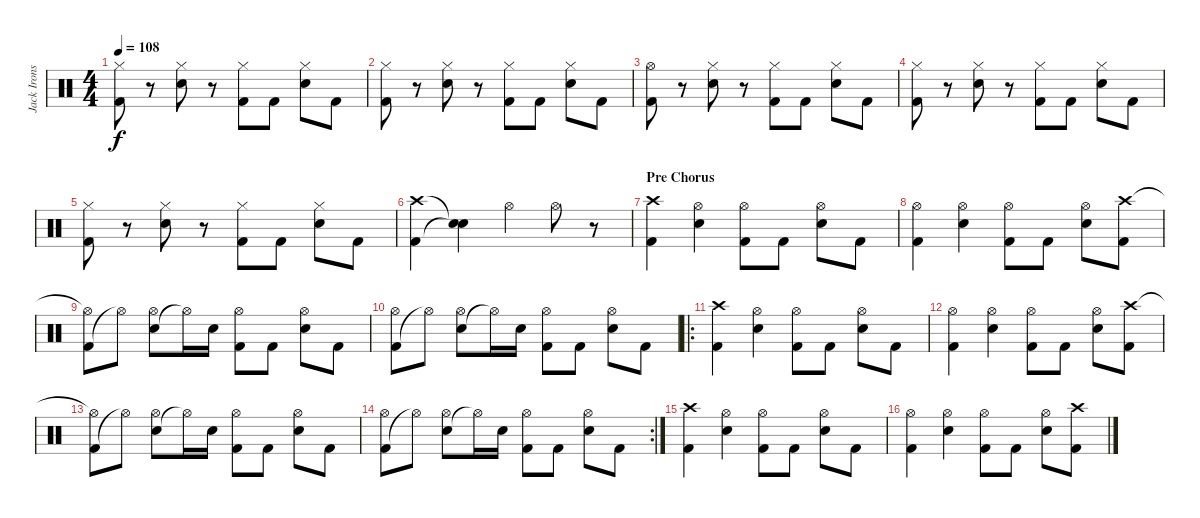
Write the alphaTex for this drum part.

\track ("Jack Irons" "Jack Irons") {instrument percussion}
\staff {score}
\articulation defaults
\ts (4 4)
\tempo 108
\clef neutral
\ks c
("Kick (hit) 2" "Hi-Hat (closed)").8{dy f} r.8 ("Electric Snare (hit)" "Hi-Hat (closed)").8 r.8 ("Kick (hit) 2" "Hi-Hat (closed)").8 "Kick (hit) 2".8 ("Electric Snare (hit)" "Hi-Hat (closed)").8 "Kick (hit) 2".8 |
("Kick (hit) 2" "Hi-Hat (closed)").8 r.8 ("Electric Snare (hit)" "Hi-Hat (closed)").8 r.8 ("Kick (hit) 2" "Hi-Hat (closed)").8 "Kick (hit) 2".8 ("Electric Snare (hit)" "Hi-Hat (closed)").8 "Kick (hit) 2".8 |
("Kick (hit) 2" "Hi-Hat (open)").8 r.8 ("Electric Snare (hit)" "Hi-Hat (closed)").8 r.8 ("Kick (hit) 2" "Hi-Hat (closed)").8 "Kick (hit) 2".8 ("Electric Snare (hit)" "Hi-Hat (closed)").8 "Kick (hit) 2".8 |
("Kick (hit) 2" "Hi-Hat (closed)").8 r.8 ("Electric Snare (hit)" "Hi-Hat (closed)").8 r.8 ("Kick (hit) 2" "Hi-Hat (closed)").8 "Kick (hit) 2".8 ("Electric Snare (hit)" "Hi-Hat (closed)").8 "Kick (hit) 2".8 |
("Kick (hit) 2" "Hi-Hat (closed)").8 r.8 ("Electric Snare (hit)" "Hi-Hat (closed)").8 r.8 ("Kick (hit) 2" "Hi-Hat (closed)").8 "Kick (hit) 2".8 ("Electric Snare (hit)" "Hi-Hat (closed)").8 "Kick (hit) 2".8 |
("Kick (hit) 2" "Crash high (hit)").4 ("Snare (hit)"{t} "Snare (hit)"{t}).4 "Hi-Hat (open)".4 "Hi-Hat (open)".8 r.8 |
\section ("" "Pre Chorus")
("Kick (hit) 2" "Crash high (hit)").4 ("Electric Snare (hit)" "Hi-Hat (open)").4 ("Kick (hit) 2" "Hi-Hat (open)").8 "Kick (hit) 2".8 ("Electric Snare (hit)" "Hi-Hat (open)").8 "Kick (hit) 2".8 |
("Kick (hit) 2" "Hi-Hat (open)").4 ("Electric Snare (hit)" "Hi-Hat (open)").4 ("Kick (hit) 2" "Hi-Hat (open)").8 "Kick (hit) 2".8 ("Electric Snare (hit)" "Hi-Hat (open)").8 ("Kick (hit) 2" "Crash high (hit)").8 |
("Kick (hit) 2" "Hi-Hat (open)"{t}).8 "Hi-Hat (open)"{t}.8 ("Electric Snare (hit)" "Hi-Hat (open)").8 "Hi-Hat (open)"{t}.16 "Electric Snare (hit)".16 ("Kick (hit) 2" "Hi-Hat (open)").8 "Kick (hit) 2".8 ("Electric Snare (hit)" "Hi-Hat (open)").8 "Kick (hit) 2".8 |
("Kick (hit) 2" "Hi-Hat (open)").8 "Hi-Hat (open)"{t}.8 ("Electric Snare (hit)" "Hi-Hat (open)").8 "Hi-Hat (open)"{t}.16 "Electric Snare (hit)".16 ("Kick (hit) 2" "Hi-Hat (open)").8 "Kick (hit) 2".8 ("Electric Snare (hit)" "Hi-Hat (open)").8 "Kick (hit) 2".8 |
\ro
("Kick (hit) 2" "Crash high (hit)").4 ("Electric Snare (hit)" "Hi-Hat (open)").4 ("Kick (hit) 2" "Hi-Hat (open)").8 "Kick (hit) 2".8 ("Electric Snare (hit)" "Hi-Hat (open)").8 "Kick (hit) 2".8 |
("Kick (hit) 2" "Hi-Hat (open)").4 ("Electric Snare (hit)" "Hi-Hat (open)").4 ("Kick (hit) 2" "Hi-Hat (open)").8 "Kick (hit) 2".8 ("Electric Snare (hit)" "Hi-Hat (open)").8 ("Kick (hit) 2" "Crash high (hit)").8 |
("Kick (hit) 2" "Hi-Hat (open)"{t}).8 "Hi-Hat (open)"{t}.8 ("Electric Snare (hit)" "Hi-Hat (open)").8 "Hi-Hat (open)"{t}.16 "Electric Snare (hit)".16 ("Kick (hit) 2" "Hi-Hat (open)").8 "Kick (hit) 2".8 ("Electric Snare (hit)" "Hi-Hat (open)").8 "Kick (hit) 2".8 |
\rc 2
("Kick (hit) 2" "Hi-Hat (open)").8 "Hi-Hat (open)"{t}.8 ("Electric Snare (hit)" "Hi-Hat (open)").8 "Hi-Hat (open)"{t}.16 "Electric Snare (hit)".16 ("Kick (hit) 2" "Hi-Hat (open)").8 "Kick (hit) 2".8 ("Electric Snare (hit)" "Hi-Hat (open)").8 "Kick (hit) 2".8 |
("Kick (hit) 2" "Crash high (hit)").4 ("Electric Snare (hit)" "Hi-Hat (open)").4 ("Kick (hit) 2" "Hi-Hat (open)").8 "Kick (hit) 2".8 ("Electric Snare (hit)" "Hi-Hat (open)").8 "Kick (hit) 2".8 |
("Kick (hit) 2" "Hi-Hat (open)").4 ("Electric Snare (hit)" "Hi-Hat (open)").4 ("Kick (hit) 2" "Hi-Hat (open)").8 "Kick (hit) 2".8 ("Electric Snare (hit)" "Hi-Hat (open)").8 ("Kick (hit) 2" "Crash high (hit)").8
